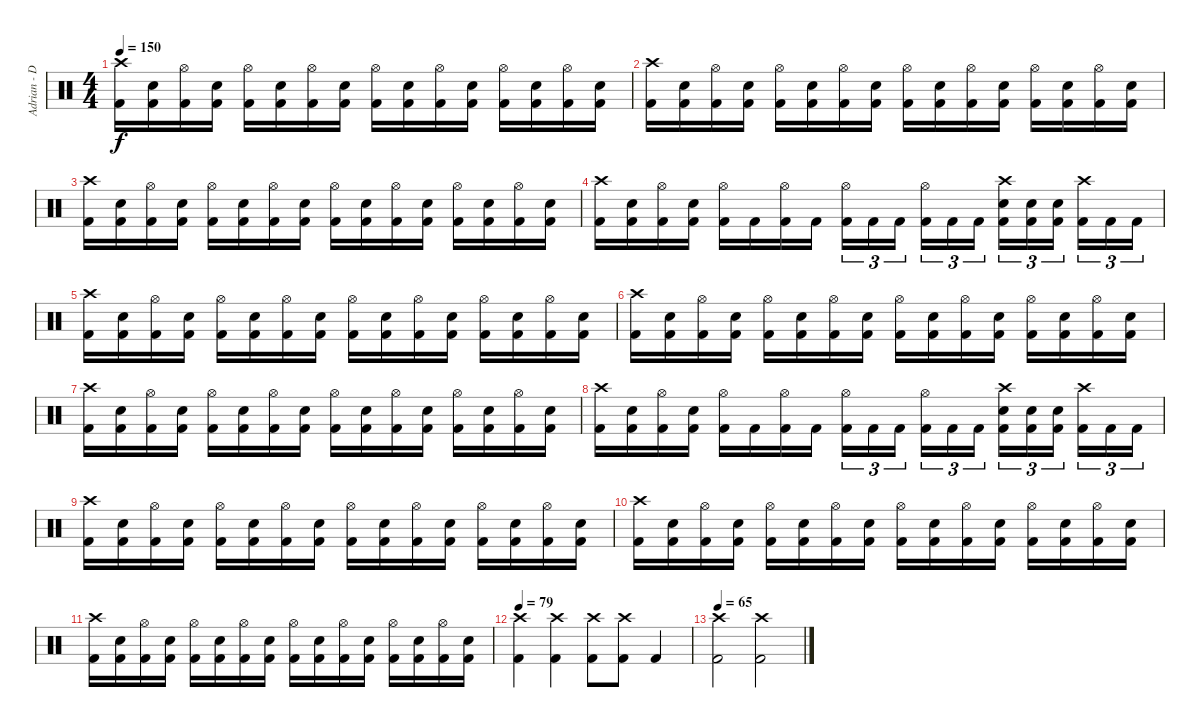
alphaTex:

\track ("Adrian - Drums" "Adrian - D") {instrument percussion}
\staff {score}
\articulation defaults
\ts (4 4)
\tempo 150
\clef neutral
\ks c
("Crash high (hit)" "Kick (hit) 2").16{dy f} ("Electric Snare (hit)" "Kick (hit) 2").16 ("Hi-Hat (open)" "Kick (hit) 2").16 ("Electric Snare (hit)" "Kick (hit) 2").16 ("Hi-Hat (open)" "Kick (hit) 2").16 ("Electric Snare (hit)" "Kick (hit) 2").16 ("Hi-Hat (open)" "Kick (hit) 2").16 ("Electric Snare (hit)" "Kick (hit) 2").16 ("Hi-Hat (open)" "Kick (hit) 2").16 ("Electric Snare (hit)" "Kick (hit) 2").16 ("Hi-Hat (open)" "Kick (hit) 2").16 ("Electric Snare (hit)" "Kick (hit) 2").16 ("Hi-Hat (open)" "Kick (hit) 2").16 ("Electric Snare (hit)" "Kick (hit) 2").16 ("Hi-Hat (open)" "Kick (hit) 2").16 ("Electric Snare (hit)" "Kick (hit) 2").16 |
("Crash high (hit)" "Kick (hit) 2").16 ("Electric Snare (hit)" "Kick (hit) 2").16 ("Hi-Hat (open)" "Kick (hit) 2").16 ("Electric Snare (hit)" "Kick (hit) 2").16 ("Hi-Hat (open)" "Kick (hit) 2").16 ("Electric Snare (hit)" "Kick (hit) 2").16 ("Hi-Hat (open)" "Kick (hit) 2").16 ("Electric Snare (hit)" "Kick (hit) 2").16 ("Hi-Hat (open)" "Kick (hit) 2").16 ("Electric Snare (hit)" "Kick (hit) 2").16 ("Hi-Hat (open)" "Kick (hit) 2").16 ("Electric Snare (hit)" "Kick (hit) 2").16 ("Hi-Hat (open)" "Kick (hit) 2").16 ("Electric Snare (hit)" "Kick (hit) 2").16 ("Hi-Hat (open)" "Kick (hit) 2").16 ("Electric Snare (hit)" "Kick (hit) 2").16 |
("Crash high (hit)" "Kick (hit) 2").16 ("Electric Snare (hit)" "Kick (hit) 2").16 ("Hi-Hat (open)" "Kick (hit) 2").16 ("Electric Snare (hit)" "Kick (hit) 2").16 ("Hi-Hat (open)" "Kick (hit) 2").16 ("Electric Snare (hit)" "Kick (hit) 2").16 ("Hi-Hat (open)" "Kick (hit) 2").16 ("Electric Snare (hit)" "Kick (hit) 2").16 ("Hi-Hat (open)" "Kick (hit) 2").16 ("Electric Snare (hit)" "Kick (hit) 2").16 ("Hi-Hat (open)" "Kick (hit) 2").16 ("Electric Snare (hit)" "Kick (hit) 2").16 ("Hi-Hat (open)" "Kick (hit) 2").16 ("Electric Snare (hit)" "Kick (hit) 2").16 ("Hi-Hat (open)" "Kick (hit) 2").16 ("Electric Snare (hit)" "Kick (hit) 2").16 |
("Crash high (hit)" "Kick (hit) 2").16 ("Electric Snare (hit)" "Kick (hit) 2").16 ("Hi-Hat (open)" "Kick (hit) 2").16 ("Electric Snare (hit)" "Kick (hit) 2").16 ("Hi-Hat (open)" "Kick (hit) 2").16 "Kick (hit) 2".16 ("Hi-Hat (open)" "Kick (hit) 2").16 "Kick (hit) 2".16 ("Hi-Hat (open)" "Kick (hit) 2").16{tu (3 2)} "Kick (hit) 2".16{tu (3 2)} "Kick (hit) 2".16{tu (3 2)} ("Hi-Hat (open)" "Kick (hit) 2").16{tu (3 2)} "Kick (hit) 2".16{tu (3 2)} "Kick (hit) 2".16{tu (3 2)} ("Crash high (hit)" "Electric Snare (hit)" "Kick (hit) 2").16{tu (3 2)} ("Electric Snare (hit)" "Kick (hit) 2").16{tu (3 2)} ("Electric Snare (hit)" "Kick (hit) 2").16{tu (3 2)} ("Crash high (hit)" "Kick (hit) 2").16{tu (3 2)} "Kick (hit) 2".16{tu (3 2)} "Kick (hit) 2".16{tu (3 2)} |
("Crash high (hit)" "Kick (hit) 2").16 ("Electric Snare (hit)" "Kick (hit) 2").16 ("Hi-Hat (open)" "Kick (hit) 2").16 ("Electric Snare (hit)" "Kick (hit) 2").16 ("Hi-Hat (open)" "Kick (hit) 2").16 ("Electric Snare (hit)" "Kick (hit) 2").16 ("Hi-Hat (open)" "Kick (hit) 2").16 ("Electric Snare (hit)" "Kick (hit) 2").16 ("Hi-Hat (open)" "Kick (hit) 2").16 ("Electric Snare (hit)" "Kick (hit) 2").16 ("Hi-Hat (open)" "Kick (hit) 2").16 ("Electric Snare (hit)" "Kick (hit) 2").16 ("Hi-Hat (open)" "Kick (hit) 2").16 ("Electric Snare (hit)" "Kick (hit) 2").16 ("Hi-Hat (open)" "Kick (hit) 2").16 ("Electric Snare (hit)" "Kick (hit) 2").16 |
("Crash high (hit)" "Kick (hit) 2").16 ("Electric Snare (hit)" "Kick (hit) 2").16 ("Hi-Hat (open)" "Kick (hit) 2").16 ("Electric Snare (hit)" "Kick (hit) 2").16 ("Hi-Hat (open)" "Kick (hit) 2").16 ("Electric Snare (hit)" "Kick (hit) 2").16 ("Hi-Hat (open)" "Kick (hit) 2").16 ("Electric Snare (hit)" "Kick (hit) 2").16 ("Hi-Hat (open)" "Kick (hit) 2").16 ("Electric Snare (hit)" "Kick (hit) 2").16 ("Hi-Hat (open)" "Kick (hit) 2").16 ("Electric Snare (hit)" "Kick (hit) 2").16 ("Hi-Hat (open)" "Kick (hit) 2").16 ("Electric Snare (hit)" "Kick (hit) 2").16 ("Hi-Hat (open)" "Kick (hit) 2").16 ("Electric Snare (hit)" "Kick (hit) 2").16 |
("Crash high (hit)" "Kick (hit) 2").16 ("Electric Snare (hit)" "Kick (hit) 2").16 ("Hi-Hat (open)" "Kick (hit) 2").16 ("Electric Snare (hit)" "Kick (hit) 2").16 ("Hi-Hat (open)" "Kick (hit) 2").16 ("Electric Snare (hit)" "Kick (hit) 2").16 ("Hi-Hat (open)" "Kick (hit) 2").16 ("Electric Snare (hit)" "Kick (hit) 2").16 ("Hi-Hat (open)" "Kick (hit) 2").16 ("Electric Snare (hit)" "Kick (hit) 2").16 ("Hi-Hat (open)" "Kick (hit) 2").16 ("Electric Snare (hit)" "Kick (hit) 2").16 ("Hi-Hat (open)" "Kick (hit) 2").16 ("Electric Snare (hit)" "Kick (hit) 2").16 ("Hi-Hat (open)" "Kick (hit) 2").16 ("Electric Snare (hit)" "Kick (hit) 2").16 |
("Crash high (hit)" "Kick (hit) 2").16 ("Electric Snare (hit)" "Kick (hit) 2").16 ("Hi-Hat (open)" "Kick (hit) 2").16 ("Electric Snare (hit)" "Kick (hit) 2").16 ("Hi-Hat (open)" "Kick (hit) 2").16 "Kick (hit) 2".16 ("Hi-Hat (open)" "Kick (hit) 2").16 "Kick (hit) 2".16 ("Hi-Hat (open)" "Kick (hit) 2").16{tu (3 2)} "Kick (hit) 2".16{tu (3 2)} "Kick (hit) 2".16{tu (3 2)} ("Hi-Hat (open)" "Kick (hit) 2").16{tu (3 2)} "Kick (hit) 2".16{tu (3 2)} "Kick (hit) 2".16{tu (3 2)} ("Crash high (hit)" "Electric Snare (hit)" "Kick (hit) 2").16{tu (3 2)} ("Electric Snare (hit)" "Kick (hit) 2").16{tu (3 2)} ("Electric Snare (hit)" "Kick (hit) 2").16{tu (3 2)} ("Crash high (hit)" "Kick (hit) 2").16{tu (3 2)} "Kick (hit) 2".16{tu (3 2)} "Kick (hit) 2".16{tu (3 2)} |
("Crash high (hit)" "Kick (hit) 2").16 ("Electric Snare (hit)" "Kick (hit) 2").16 ("Hi-Hat (open)" "Kick (hit) 2").16 ("Electric Snare (hit)" "Kick (hit) 2").16 ("Hi-Hat (open)" "Kick (hit) 2").16 ("Electric Snare (hit)" "Kick (hit) 2").16 ("Hi-Hat (open)" "Kick (hit) 2").16 ("Electric Snare (hit)" "Kick (hit) 2").16 ("Hi-Hat (open)" "Kick (hit) 2").16 ("Electric Snare (hit)" "Kick (hit) 2").16 ("Hi-Hat (open)" "Kick (hit) 2").16 ("Electric Snare (hit)" "Kick (hit) 2").16 ("Hi-Hat (open)" "Kick (hit) 2").16 ("Electric Snare (hit)" "Kick (hit) 2").16 ("Hi-Hat (open)" "Kick (hit) 2").16 ("Electric Snare (hit)" "Kick (hit) 2").16 |
("Crash high (hit)" "Kick (hit) 2").16 ("Electric Snare (hit)" "Kick (hit) 2").16 ("Hi-Hat (open)" "Kick (hit) 2").16 ("Electric Snare (hit)" "Kick (hit) 2").16 ("Hi-Hat (open)" "Kick (hit) 2").16 ("Electric Snare (hit)" "Kick (hit) 2").16 ("Hi-Hat (open)" "Kick (hit) 2").16 ("Electric Snare (hit)" "Kick (hit) 2").16 ("Hi-Hat (open)" "Kick (hit) 2").16 ("Electric Snare (hit)" "Kick (hit) 2").16 ("Hi-Hat (open)" "Kick (hit) 2").16 ("Electric Snare (hit)" "Kick (hit) 2").16 ("Hi-Hat (open)" "Kick (hit) 2").16 ("Electric Snare (hit)" "Kick (hit) 2").16 ("Hi-Hat (open)" "Kick (hit) 2").16 ("Electric Snare (hit)" "Kick (hit) 2").16 |
("Crash high (hit)" "Kick (hit) 2").16 ("Electric Snare (hit)" "Kick (hit) 2").16 ("Hi-Hat (open)" "Kick (hit) 2").16 ("Electric Snare (hit)" "Kick (hit) 2").16 ("Hi-Hat (open)" "Kick (hit) 2").16 ("Electric Snare (hit)" "Kick (hit) 2").16 ("Hi-Hat (open)" "Kick (hit) 2").16 ("Electric Snare (hit)" "Kick (hit) 2").16 ("Hi-Hat (open)" "Kick (hit) 2").16 ("Electric Snare (hit)" "Kick (hit) 2").16 ("Hi-Hat (open)" "Kick (hit) 2").16 ("Electric Snare (hit)" "Kick (hit) 2").16 ("Hi-Hat (open)" "Kick (hit) 2").16 ("Electric Snare (hit)" "Kick (hit) 2").16 ("Hi-Hat (open)" "Kick (hit) 2").16 ("Electric Snare (hit)" "Kick (hit) 2").16 |
\tempo 79
("Crash high (hit)" "Kick (hit) 2").4 ("Crash high (hit)" "Kick (hit) 2").4 ("Crash high (hit)" "Kick (hit) 2").8 ("Crash high (hit)" "Kick (hit) 2").8 "Kick (hit) 2".4 |
\tempo 65
("Crash high (hit)" "Kick (hit) 2").2 ("Crash high (hit)" "Kick (hit) 2").2
